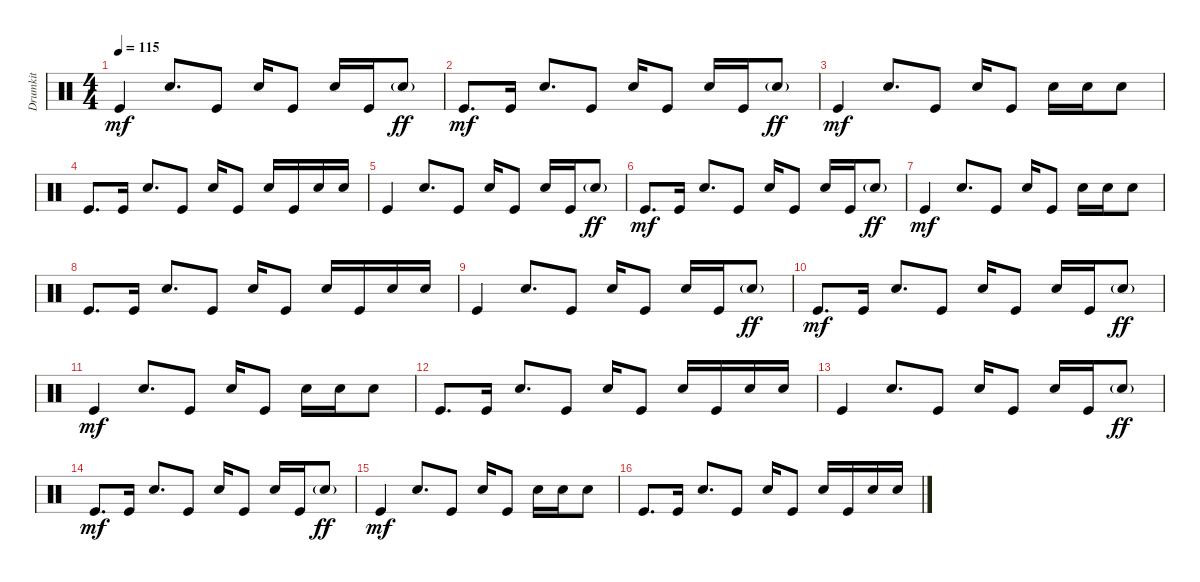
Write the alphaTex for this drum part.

\track ("Drumkit" "Drumkit") {instrument percussion}
\staff {score}
\articulation defaults
\ts (4 4)
\tempo 115
\clef neutral
\ks c "Kick (hit)".4{dy mf} "Snare (hit) 2".8{d} "Kick (hit)".8 "Snare (hit) 2".16 "Kick (hit)".8 "Snare (hit) 2".16 "Kick (hit)".16 "Snare (hit) 2"{g}.8{dy ff}
|
"Kick (hit)".8{d dy mf} "Kick (hit)".16 "Snare (hit) 2".8{d} "Kick (hit)".8 "Snare (hit) 2".16 "Kick (hit)".8 "Snare (hit) 2".16 "Kick (hit)".16 "Snare (hit) 2"{g}.8{dy ff} |
"Kick (hit)".4{dy mf} "Snare (hit) 2".8{d} "Kick (hit)".8 "Snare (hit) 2".16 "Kick (hit)".8 "Snare (hit) 2".16 "Snare (hit) 2".16 "Snare (hit) 2".8 |
"Kick (hit)".8{d} "Kick (hit)".16 "Snare (hit) 2".8{d} "Kick (hit)".8 "Snare (hit) 2".16 "Kick (hit)".8 "Snare (hit) 2".16 "Kick (hit)".16 "Snare (hit) 2".16 "Snare (hit) 2".16 |
"Kick (hit)".4 "Snare (hit) 2".8{d} "Kick (hit)".8 "Snare (hit) 2".16 "Kick (hit)".8 "Snare (hit) 2".16 "Kick (hit)".16 "Snare (hit) 2"{g}.8{dy ff} |
"Kick (hit)".8{d dy mf} "Kick (hit)".16 "Snare (hit) 2".8{d} "Kick (hit)".8 "Snare (hit) 2".16 "Kick (hit)".8 "Snare (hit) 2".16 "Kick (hit)".16 "Snare (hit) 2"{g}.8{dy ff} |
"Kick (hit)".4{dy mf} "Snare (hit) 2".8{d} "Kick (hit)".8 "Snare (hit) 2".16 "Kick (hit)".8 "Snare (hit) 2".16 "Snare (hit) 2".16 "Snare (hit) 2".8 |
"Kick (hit)".8{d} "Kick (hit)".16 "Snare (hit) 2".8{d} "Kick (hit)".8 "Snare (hit) 2".16 "Kick (hit)".8 "Snare (hit) 2".16 "Kick (hit)".16 "Snare (hit) 2".16 "Snare (hit) 2".16 |
"Kick (hit)".4 "Snare (hit) 2".8{d} "Kick (hit)".8 "Snare (hit) 2".16 "Kick (hit)".8 "Snare (hit) 2".16 "Kick (hit)".16 "Snare (hit) 2"{g}.8{dy ff} |
"Kick (hit)".8{d dy mf} "Kick (hit)".16 "Snare (hit) 2".8{d} "Kick (hit)".8 "Snare (hit) 2".16 "Kick (hit)".8 "Snare (hit) 2".16 "Kick (hit)".16 "Snare (hit) 2"{g}.8{dy ff} |
"Kick (hit)".4{dy mf} "Snare (hit) 2".8{d} "Kick (hit)".8 "Snare (hit) 2".16 "Kick (hit)".8 "Snare (hit) 2".16 "Snare (hit) 2".16 "Snare (hit) 2".8 |
"Kick (hit)".8{d} "Kick (hit)".16 "Snare (hit) 2".8{d} "Kick (hit)".8 "Snare (hit) 2".16 "Kick (hit)".8 "Snare (hit) 2".16 "Kick (hit)".16 "Snare (hit) 2".16 "Snare (hit) 2".16 |
"Kick (hit)".4 "Snare (hit) 2".8{d} "Kick (hit)".8 "Snare (hit) 2".16 "Kick (hit)".8 "Snare (hit) 2".16 "Kick (hit)".16 "Snare (hit) 2"{g}.8{dy ff} |
"Kick (hit)".8{d dy mf} "Kick (hit)".16 "Snare (hit) 2".8{d} "Kick (hit)".8 "Snare (hit) 2".16 "Kick (hit)".8 "Snare (hit) 2".16 "Kick (hit)".16 "Snare (hit) 2"{g}.8{dy ff} |
"Kick (hit)".4{dy mf} "Snare (hit) 2".8{d} "Kick (hit)".8 "Snare (hit) 2".16 "Kick (hit)".8 "Snare (hit) 2".16 "Snare (hit) 2".16 "Snare (hit) 2".8 |
"Kick (hit)".8{d} "Kick (hit)".16 "Snare (hit) 2".8{d} "Kick (hit)".8 "Snare (hit) 2".16 "Kick (hit)".8 "Snare (hit) 2".16 "Kick (hit)".16 "Snare (hit) 2".16 "Snare (hit) 2".16
